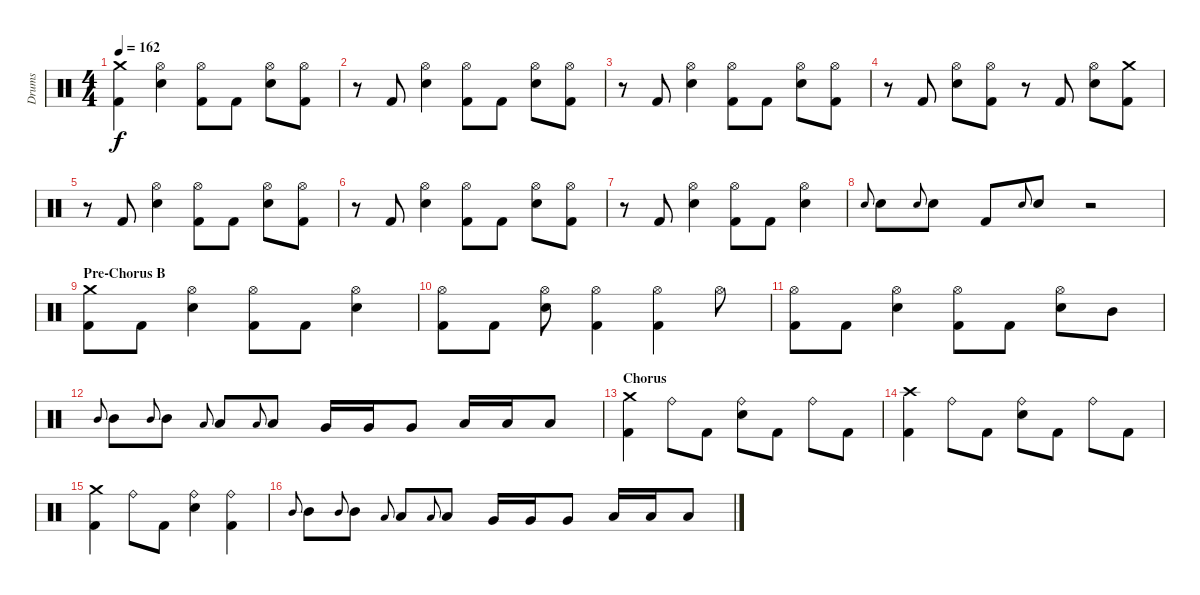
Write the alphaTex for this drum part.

\track ("Drums" "Drums") {instrument percussion}
\staff {score}
\articulation defaults
\ts (4 4)
\tempo 162
\clef neutral
\ks c
("Crash medium (hit)" "Kick (hit) 2").4{dy f} ("Hi-Hat (open)" "Snare (hit) 2").4 ("Hi-Hat (open)" "Kick (hit) 2").8 "Kick (hit) 2".8 ("Hi-Hat (open)" "Snare (hit) 2").8 ("Hi-Hat (open)" "Kick (hit) 2").8 |
r.8 "Kick (hit) 2".8 ("Hi-Hat (open)" "Snare (hit) 2").4 ("Hi-Hat (open)" "Kick (hit) 2").8 "Kick (hit) 2".8 ("Hi-Hat (open)" "Snare (hit) 2").8 ("Hi-Hat (open)" "Kick (hit) 2").8 |
r.8 "Kick (hit) 2".8 ("Hi-Hat (open)" "Snare (hit) 2").4 ("Hi-Hat (open)" "Kick (hit) 2").8 "Kick (hit) 2".8 ("Hi-Hat (open)" "Snare (hit) 2").8 ("Hi-Hat (open)" "Kick (hit) 2").8 |
r.8 "Kick (hit) 2".8 ("Hi-Hat (open)" "Snare (hit) 2").8 ("Hi-Hat (open)" "Kick (hit) 2").8 r.8 "Kick (hit) 2".8 ("Hi-Hat (open)" "Snare (hit) 2").8 ("Crash medium (hit)" "Kick (hit) 2").8 |
r.8 "Kick (hit) 2".8 ("Hi-Hat (open)" "Snare (hit) 2").4 ("Hi-Hat (open)" "Kick (hit) 2").8 "Kick (hit) 2".8 ("Hi-Hat (open)" "Snare (hit) 2").8 ("Hi-Hat (open)" "Kick (hit) 2").8 |
r.8 "Kick (hit) 2".8 ("Hi-Hat (open)" "Snare (hit) 2").4 ("Hi-Hat (open)" "Kick (hit) 2").8 "Kick (hit) 2".8 ("Hi-Hat (open)" "Snare (hit) 2").8 ("Hi-Hat (open)" "Kick (hit) 2").8 |
r.8 "Kick (hit) 2".8 ("Hi-Hat (open)" "Snare (hit) 2").4 ("Hi-Hat (open)" "Kick (hit) 2").8 "Kick (hit) 2".8 ("Hi-Hat (open)" "Snare (hit) 2").4 |
"Snare (hit) 2".8{gr onbeat} "Snare (hit) 2".8 "Snare (hit) 2".8{gr onbeat} "Snare (hit) 2".8 "Kick (hit) 2".8 "Snare (hit) 2".8{gr onbeat} "Snare (hit) 2".8 r.2 |
\section ("" "Pre-Chorus B")
("Crash medium (hit)" "Kick (hit) 2").8 "Kick (hit) 2".8 ("Hi-Hat (open)" "Snare (hit) 2").4 ("Hi-Hat (open)" "Kick (hit) 2").8 "Kick (hit) 2".8 ("Hi-Hat (open)" "Snare (hit) 2").4 |
("Hi-Hat (open)" "Kick (hit) 2").8 "Kick (hit) 2".8 ("Hi-Hat (open)" "Snare (hit) 2").8 ("Hi-Hat (open)" "Kick (hit) 2").4 ("Hi-Hat (open)" "Kick (hit) 2").4 "Hi-Hat (open)".8 |
("Hi-Hat (open)" "Kick (hit) 2").8 "Kick (hit) 2".8 ("Hi-Hat (open)" "Snare (hit) 2").4 ("Hi-Hat (open)" "Kick (hit) 2").8 "Kick (hit) 2".8 ("Hi-Hat (open)" "Snare (hit) 2").8 "Mid Tom (hit)".8 |
"Mid Tom (hit)".8{gr onbeat} "Mid Tom (hit)".8 "Mid Tom (hit)".8{gr onbeat} "Mid Tom (hit)".8 "Low Tom (hit)".8{gr onbeat} "Low Tom (hit)".8 "Low Tom (hit)".8{gr onbeat} "Low Tom (hit)".8 "Very Low Tom (hit)".16 "Very Low Tom (hit)".16 "Very Low Tom (hit)".8 "Low Floor Tom (hit)".16 "Low Floor Tom (hit)".16 "Low Floor Tom (hit)".8 |
\section ("" "Chorus")
("Crash medium (hit)" "Kick (hit) 2").4 "Ride (bell)".8 "Kick (hit) 2".8 ("Ride (bell)" "Snare (hit) 2").8 "Kick (hit) 2".8 "Ride (bell)".8 "Kick (hit) 2".8 |
("Crash high (hit)" "Kick (hit) 2").4 "Ride (bell)".8 "Kick (hit) 2".8 ("Ride (bell)" "Snare (hit) 2").8 "Kick (hit) 2".8 "Ride (bell)".8 "Kick (hit) 2".8 |
("Crash medium (hit)" "Kick (hit) 2").4 "Ride (bell)".8 "Kick (hit) 2".8 ("Ride (bell)" "Snare (hit) 2").4 ("Ride (bell)" "Kick (hit) 2").4 |
"Mid Tom (hit)".8{gr onbeat} "Mid Tom (hit)".8 "Mid Tom (hit)".8{gr onbeat} "Mid Tom (hit)".8 "Low Tom (hit)".8{gr onbeat} "Low Tom (hit)".8 "Low Tom (hit)".8{gr onbeat} "Low Tom (hit)".8 "Very Low Tom (hit)".16 "Very Low Tom (hit)".16 "Very Low Tom (hit)".8 "Low Floor Tom (hit)".16 "Low Floor Tom (hit)".16 "Low Floor Tom (hit)".8
